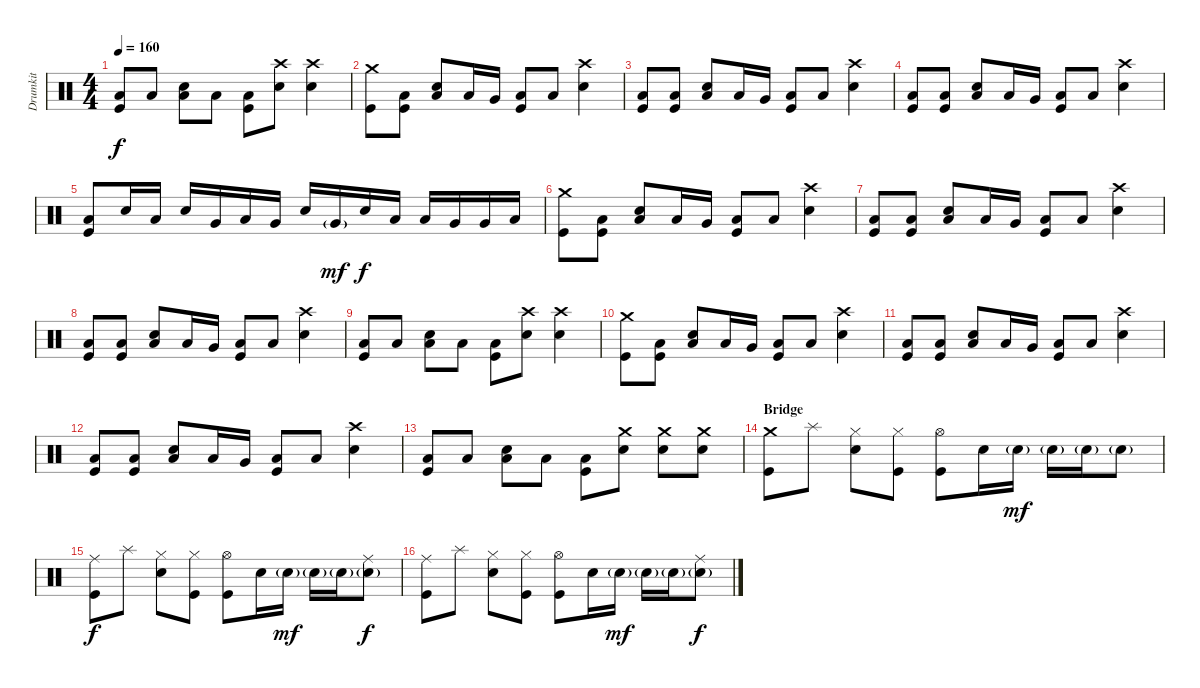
\track ("Drumkit" "Drumkit") {instrument percussion}
\staff {score}
\articulation defaults
\ts (4 4)
\tempo 160
\clef neutral
\ks c
("Low Floor Tom (hit)" "Kick (hit)").8{dy f} "Low Floor Tom (hit)".8 ("Low Floor Tom (hit)" "Snare (hit) 2").8 "Low Floor Tom (hit)".8 ("Low Floor Tom (hit)" "Kick (hit)").8 ("Crash high (hit)" "Snare (hit) 2").8 ("Crash high (hit)" "Snare (hit) 2").4 |
("Crash medium (hit)" "Kick (hit)").8 ("Low Floor Tom (hit)" "Kick (hit)").8 ("Low Floor Tom (hit)" "Snare (hit) 2").8 "Low Tom (hit)".16 "Very Low Tom (hit)".16 ("Low Floor Tom (hit)" "Kick (hit)").8 "Low Floor Tom (hit)".8 ("Crash high (hit)" "Snare (hit) 2").4 |
("Low Floor Tom (hit)" "Kick (hit)").8 ("Low Floor Tom (hit)" "Kick (hit)").8 ("Low Floor Tom (hit)" "Snare (hit) 2").8 "Low Tom (hit)".16 "Very Low Tom (hit)".16 ("Low Floor Tom (hit)" "Kick (hit)").8 "Low Floor Tom (hit)".8 ("Crash high (hit)" "Snare (hit) 2").4 |
("Low Floor Tom (hit)" "Kick (hit)").8 ("Low Floor Tom (hit)" "Kick (hit)").8 ("Low Floor Tom (hit)" "Snare (hit) 2").8 "Low Tom (hit)".16 "Very Low Tom (hit)".16 ("Low Floor Tom (hit)" "Kick (hit)").8 "Low Floor Tom (hit)".8 ("Crash high (hit)" "Snare (hit) 2").4 |
("Low Tom (hit)" "Kick (hit)").8 "Snare (hit) 2".16 "Low Tom (hit)".16 "Snare (hit) 2".16 "Very Low Tom (hit)".16 "Low Tom (hit)".16 "Very Low Tom (hit)".16 "Snare (hit) 2".16 "Very Low Tom (hit)"{g}.16{dy mf} "Snare (hit) 2".16{dy f} "Low Tom (hit)".16 "Low Tom (hit)".16 "Very Low Tom (hit)".16 "Very Low Tom (hit)".16 "Low Floor Tom (hit)".16 |
("Crash medium (hit)" "Kick (hit)").8 ("Low Floor Tom (hit)" "Kick (hit)").8 ("Low Floor Tom (hit)" "Snare (hit) 2").8 "Low Tom (hit)".16 "Very Low Tom (hit)".16 ("Low Floor Tom (hit)" "Kick (hit)").8 "Low Floor Tom (hit)".8 ("Crash high (hit)" "Snare (hit) 2").4 |
("Low Floor Tom (hit)" "Kick (hit)").8 ("Low Floor Tom (hit)" "Kick (hit)").8 ("Low Floor Tom (hit)" "Snare (hit) 2").8 "Low Tom (hit)".16 "Very Low Tom (hit)".16 ("Low Floor Tom (hit)" "Kick (hit)").8 "Low Floor Tom (hit)".8 ("Crash high (hit)" "Snare (hit) 2").4 |
("Low Floor Tom (hit)" "Kick (hit)").8 ("Low Floor Tom (hit)" "Kick (hit)").8 ("Low Floor Tom (hit)" "Snare (hit) 2").8 "Low Tom (hit)".16 "Very Low Tom (hit)".16 ("Low Floor Tom (hit)" "Kick (hit)").8 "Low Floor Tom (hit)".8 ("Crash high (hit)" "Snare (hit) 2").4 |
("Low Floor Tom (hit)" "Kick (hit)").8 "Low Floor Tom (hit)".8 ("Low Floor Tom (hit)" "Snare (hit) 2").8 "Low Floor Tom (hit)".8 ("Low Floor Tom (hit)" "Kick (hit)").8 ("Crash high (hit)" "Snare (hit) 2").8 ("Crash high (hit)" "Snare (hit) 2").4 |
("Crash medium (hit)" "Kick (hit)").8 ("Low Floor Tom (hit)" "Kick (hit)").8 ("Low Floor Tom (hit)" "Snare (hit) 2").8 "Low Tom (hit)".16 "Very Low Tom (hit)".16 ("Low Floor Tom (hit)" "Kick (hit)").8 "Low Floor Tom (hit)".8 ("Crash high (hit)" "Snare (hit) 2").4 |
("Low Floor Tom (hit)" "Kick (hit)").8 ("Low Floor Tom (hit)" "Kick (hit)").8 ("Low Floor Tom (hit)" "Snare (hit) 2").8 "Low Tom (hit)".16 "Very Low Tom (hit)".16 ("Low Floor Tom (hit)" "Kick (hit)").8 "Low Floor Tom (hit)".8 ("Crash high (hit)" "Snare (hit) 2").4 |
("Low Floor Tom (hit)" "Kick (hit)").8 ("Low Floor Tom (hit)" "Kick (hit)").8 ("Low Floor Tom (hit)" "Snare (hit) 2").8 "Low Tom (hit)".16 "Very Low Tom (hit)".16 ("Low Floor Tom (hit)" "Kick (hit)").8 "Low Floor Tom (hit)".8 ("Crash high (hit)" "Snare (hit) 2").4 |
("Low Floor Tom (hit)" "Kick (hit)").8 "Low Floor Tom (hit)".8 ("Low Floor Tom (hit)" "Snare (hit) 2").8 "Low Floor Tom (hit)".8 ("Low Floor Tom (hit)" "Kick (hit)").8 ("Crash medium (hit)" "Snare (hit) 2").8 ("Crash medium (hit)" "Snare (hit) 2").8 ("Crash medium (hit)" "Snare (hit) 2").8 |
\section ("" "Bridge")
("Crash medium (hit)" "Kick (hit)").8 "Splash (hit)".8 ("Hi-Hat (closed)" "Snare (hit) 2").8 ("Hi-Hat (closed)" "Kick (hit)").8 ("Hi-Hat (open)" "Kick (hit)").8 "Snare (hit) 2".16 "Snare (hit) 2"{g}.16{dy mf} "Snare (hit) 2"{g}.16 "Snare (hit) 2"{g}.16 "Snare (hit) 2"{g}.8 |
("Ride (middle)" "Kick (hit)").8{dy f} "Splash (hit)".8 ("Hi-Hat (closed)" "Snare (hit) 2").8 ("Hi-Hat (closed)" "Kick (hit)").8 ("Hi-Hat (open)" "Kick (hit)").8 "Snare (hit) 2".16 "Snare (hit) 2"{g}.16{dy mf} "Snare (hit) 2"{g}.16 "Snare (hit) 2"{g}.16 ("Ride (middle)" "Snare (hit) 2"{g}).8{dy f} |
("Ride (middle)" "Kick (hit)").8 "Splash (hit)".8 ("Hi-Hat (closed)" "Snare (hit) 2").8 ("Hi-Hat (closed)" "Kick (hit)").8 ("Hi-Hat (open)" "Kick (hit)").8 "Snare (hit) 2".16 "Snare (hit) 2"{g}.16{dy mf} "Snare (hit) 2"{g}.16 "Snare (hit) 2"{g}.16 ("Ride (middle)" "Snare (hit) 2"{g}).8{dy f}
